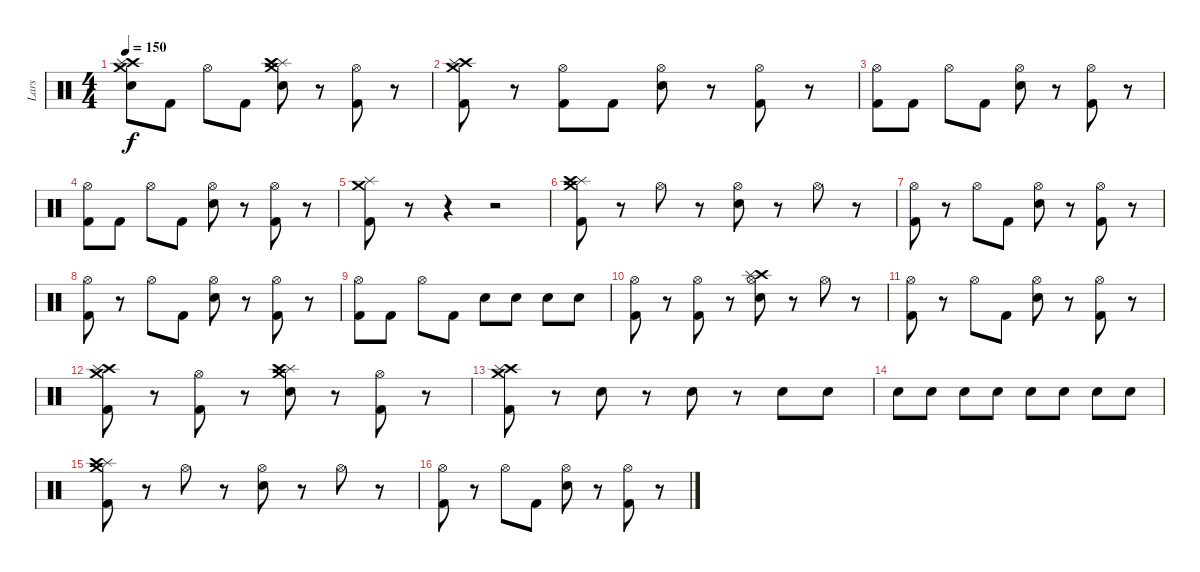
\track ("Lars" "Lars") {instrument percussion}
\staff {score}
\articulation defaults
\ts (4 4)
\tempo 150
\clef neutral
\ks c
("Crash medium (hit)" "Crash high (hit)" "Splash (hit)" "Snare (hit) 2").8{dy f} "Kick (hit) 2".8 "Hi-Hat (open)".8 "Kick (hit) 2".8 ("Crash medium (hit)" "Splash (hit)" "Crash high (hit)" "Snare (hit) 2").8 r.8 ("Hi-Hat (open)" "Kick (hit) 2").8 r.8 |
("Crash high (hit)" "Splash (hit)" "Crash medium (hit)" "Kick (hit) 2").8 r.8 ("Hi-Hat (open)" "Kick (hit) 2").8 "Kick (hit) 2".8 ("Hi-Hat (open)" "Snare (hit) 2").8 r.8 ("Hi-Hat (open)" "Kick (hit) 2").8 r.8 |
("Hi-Hat (open)" "Kick (hit) 2").8 "Kick (hit) 2".8 "Hi-Hat (open)".8 "Kick (hit) 2".8 ("Hi-Hat (open)" "Snare (hit) 2").8 r.8 ("Hi-Hat (open)" "Kick (hit) 2").8 r.8 |
("Hi-Hat (open)" "Kick (hit) 2").8 "Kick (hit) 2".8 "Hi-Hat (open)".8 "Kick (hit) 2".8 ("Hi-Hat (open)" "Snare (hit) 2").8 r.8 ("Hi-Hat (open)" "Kick (hit) 2").8 r.8 |
("Kick (hit) 2" "Splash (hit)" "Crash medium (hit)").8 r.8 r.4 r.2 |
("Splash (hit)" "Crash medium (hit)" "Crash high (hit)" "Kick (hit) 2").8 r.8 "Hi-Hat (open)".8 r.8 ("Hi-Hat (open)" "Snare (hit) 2").8 r.8 "Hi-Hat (open)".8 r.8 |
("Hi-Hat (open)" "Kick (hit) 2").8 r.8 "Hi-Hat (open)".8 "Kick (hit) 2".8 ("Hi-Hat (open)" "Snare (hit) 2").8 r.8 ("Hi-Hat (open)" "Kick (hit) 2").8 r.8 |
("Hi-Hat (open)" "Kick (hit) 2").8 r.8 "Hi-Hat (open)".8 "Kick (hit) 2".8 ("Hi-Hat (open)" "Snare (hit) 2").8 r.8 ("Hi-Hat (open)" "Kick (hit) 2").8 r.8 |
("Hi-Hat (open)" "Kick (hit) 2").8 "Kick (hit) 2".8 "Hi-Hat (open)".8 "Kick (hit) 2".8 "Snare (hit) 2".8 "Snare (hit) 2".8 "Snare (hit) 2".8 "Snare (hit) 2".8 |
("Hi-Hat (open)" "Kick (hit) 2").8 r.8 ("Hi-Hat (open)" "Kick (hit) 2").8 r.8 ("Crash high (hit)" "Splash (hit)" "Hi-Hat (open)" "Snare (hit) 2").8 r.8 "Hi-Hat (open)".8 r.8 |
("Hi-Hat (open)" "Kick (hit) 2").8 r.8 "Hi-Hat (open)".8 "Kick (hit) 2".8 ("Hi-Hat (open)" "Snare (hit) 2").8 r.8 ("Hi-Hat (open)" "Kick (hit) 2").8 r.8 |
("Crash medium (hit)" "Crash high (hit)" "Splash (hit)" "Kick (hit) 2").8 r.8 ("Kick (hit) 2" "Hi-Hat (open)").8 r.8 ("Crash medium (hit)" "Splash (hit)" "Crash high (hit)" "Snare (hit) 2").8 r.8 ("Kick (hit) 2" "Hi-Hat (open)").8 r.8 |
("Crash high (hit)" "Splash (hit)" "Crash medium (hit)" "Kick (hit) 2").8 r.8 "Snare (hit) 2".8 r.8 "Snare (hit) 2".8 r.8 "Snare (hit) 2".8 "Snare (hit) 2".8 |
"Snare (hit) 2".8 "Snare (hit) 2".8 "Snare (hit) 2".8 "Snare (hit) 2".8 "Snare (hit) 2".8 "Snare (hit) 2".8 "Snare (hit) 2".8 "Snare (hit) 2".8 |
("Splash (hit)" "Crash medium (hit)" "Crash high (hit)" "Kick (hit) 2").8 r.8 "Hi-Hat (open)".8 r.8 ("Hi-Hat (open)" "Snare (hit) 2").8 r.8 "Hi-Hat (open)".8 r.8 |
("Hi-Hat (open)" "Kick (hit) 2").8 r.8 "Hi-Hat (open)".8 "Kick (hit) 2".8 ("Hi-Hat (open)" "Snare (hit) 2").8 r.8 ("Hi-Hat (open)" "Kick (hit) 2").8 r.8
